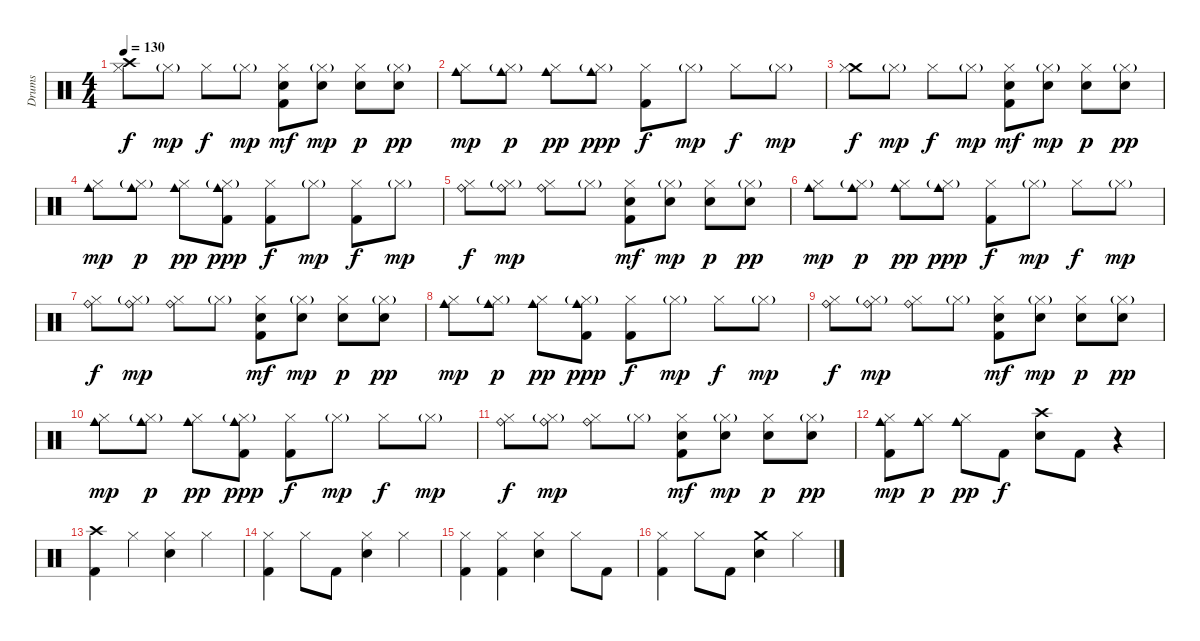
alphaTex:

\track ("Drums" "Drums") {instrument percussion}
\staff {score}
\articulation defaults
\ts (4 4)
\tempo 130
\clef neutral
\ks c
("Crash high (hit)" "Hi-Hat (closed)").8{dy f} "Hi-Hat (closed)"{g}.8{dy mp} "Hi-Hat (closed)".8{dy f} "Hi-Hat (closed)"{g}.8{dy mp} ("Hi-Hat (closed)" "Hand Clap (hit)" "Kick (hit) 2").8{dy mf} ("Hi-Hat (closed)"{g} "Hand Clap (hit)").8{dy mp} ("Hi-Hat (closed)" "Hand Clap (hit)").8{dy p} ("Hi-Hat (closed)"{g} "Hand Clap (hit)").8{dy pp} |
("Hi-Hat (closed)" "Cowbell medium (hit)").8{dy mp} ("Hi-Hat (closed)"{g} "Cowbell medium (hit)").8{dy p} ("Hi-Hat (closed)" "Cowbell medium (hit)").8{dy pp} ("Hi-Hat (closed)"{g} "Cowbell medium (hit)").8{dy ppp} ("Hi-Hat (closed)" "Kick (hit) 2").8{dy f} "Hi-Hat (closed)"{g}.8{dy mp} "Hi-Hat (closed)".8{dy f} "Hi-Hat (closed)"{g}.8{dy mp} |
("Crash medium (hit)" "Hi-Hat (closed)").8{dy f} "Hi-Hat (closed)"{g}.8{dy mp} "Hi-Hat (closed)".8{dy f} "Hi-Hat (closed)"{g}.8{dy mp} ("Hi-Hat (closed)" "Hand Clap (hit)" "Kick (hit) 2").8{dy mf} ("Hi-Hat (closed)"{g} "Hand Clap (hit)").8{dy mp} ("Hi-Hat (closed)" "Hand Clap (hit)").8{dy p} ("Hi-Hat (closed)"{g} "Hand Clap (hit)").8{dy pp} |
("Hi-Hat (closed)" "Cowbell medium (hit)").8{dy mp} ("Hi-Hat (closed)"{g} "Cowbell medium (hit)").8{dy p} ("Hi-Hat (closed)" "Cowbell medium (hit)").8{dy pp} ("Hi-Hat (closed)"{g} "Cowbell medium (hit)" "Kick (hit) 2").8{dy ppp} ("Hi-Hat (closed)" "Kick (hit) 2").8{dy f} "Hi-Hat (closed)"{g}.8{dy mp} ("Hi-Hat (closed)" "Kick (hit) 2").8{dy f} "Hi-Hat (closed)"{g}.8{dy mp} |
("Ride (bell)" "Hi-Hat (closed)").8{dy f} ("Ride (bell)" "Hi-Hat (closed)"{g}).8{dy mp} ("Ride (bell)" "Hi-Hat (closed)").8 "Hi-Hat (closed)"{g}.8 ("Hi-Hat (closed)" "Hand Clap (hit)" "Kick (hit) 2").8{dy mf} ("Hi-Hat (closed)"{g} "Hand Clap (hit)").8{dy mp} ("Hi-Hat (closed)" "Hand Clap (hit)").8{dy p} ("Hi-Hat (closed)"{g} "Hand Clap (hit)").8{dy pp} |
("Hi-Hat (closed)" "Cowbell medium (hit)").8{dy mp} ("Hi-Hat (closed)"{g} "Cowbell medium (hit)").8{dy p} ("Hi-Hat (closed)" "Cowbell medium (hit)").8{dy pp} ("Hi-Hat (closed)"{g} "Cowbell medium (hit)").8{dy ppp} ("Hi-Hat (closed)" "Kick (hit) 2").8{dy f} "Hi-Hat (closed)"{g}.8{dy mp} "Hi-Hat (closed)".8{dy f} "Hi-Hat (closed)"{g}.8{dy mp} |
("Ride (bell)" "Hi-Hat (closed)").8{dy f} ("Ride (bell)" "Hi-Hat (closed)"{g}).8{dy mp} ("Ride (bell)" "Hi-Hat (closed)").8 "Hi-Hat (closed)"{g}.8 ("Hi-Hat (closed)" "Hand Clap (hit)" "Kick (hit) 2").8{dy mf} ("Hi-Hat (closed)"{g} "Hand Clap (hit)").8{dy mp} ("Hi-Hat (closed)" "Hand Clap (hit)").8{dy p} ("Hi-Hat (closed)"{g} "Hand Clap (hit)").8{dy pp} |
("Hi-Hat (closed)" "Cowbell medium (hit)").8{dy mp} ("Hi-Hat (closed)"{g} "Cowbell medium (hit)").8{dy p} ("Hi-Hat (closed)" "Cowbell medium (hit)").8{dy pp} ("Hi-Hat (closed)"{g} "Cowbell medium (hit)" "Kick (hit) 2").8{dy ppp} ("Hi-Hat (closed)" "Kick (hit) 2").8{dy f} "Hi-Hat (closed)"{g}.8{dy mp} "Hi-Hat (closed)".8{dy f} "Hi-Hat (closed)"{g}.8{dy mp} |
("Ride (bell)" "Hi-Hat (closed)").8{dy f} ("Ride (bell)" "Hi-Hat (closed)"{g}).8{dy mp} ("Ride (bell)" "Hi-Hat (closed)").8 "Hi-Hat (closed)"{g}.8 ("Hi-Hat (closed)" "Hand Clap (hit)" "Kick (hit) 2").8{dy mf} ("Hi-Hat (closed)"{g} "Hand Clap (hit)").8{dy mp} ("Hi-Hat (closed)" "Hand Clap (hit)").8{dy p} ("Hi-Hat (closed)"{g} "Hand Clap (hit)").8{dy pp} |
("Hi-Hat (closed)" "Cowbell medium (hit)").8{dy mp} ("Hi-Hat (closed)"{g} "Cowbell medium (hit)").8{dy p} ("Hi-Hat (closed)" "Cowbell medium (hit)").8{dy pp} ("Hi-Hat (closed)"{g} "Cowbell medium (hit)" "Kick (hit) 2").8{dy ppp} ("Hi-Hat (closed)" "Kick (hit) 2").8{dy f} "Hi-Hat (closed)"{g}.8{dy mp} "Hi-Hat (closed)".8{dy f} "Hi-Hat (closed)"{g}.8{dy mp} |
("Ride (bell)" "Hi-Hat (closed)").8{dy f} ("Ride (bell)" "Hi-Hat (closed)"{g}).8{dy mp} ("Ride (bell)" "Hi-Hat (closed)").8 "Hi-Hat (closed)"{g}.8 ("Hi-Hat (closed)" "Hand Clap (hit)" "Kick (hit) 2").8{dy mf} ("Hi-Hat (closed)"{g} "Hand Clap (hit)").8{dy mp} ("Hi-Hat (closed)" "Hand Clap (hit)").8{dy p} ("Hi-Hat (closed)"{g} "Hand Clap (hit)").8{dy pp} |
("Hi-Hat (closed)" "Cowbell medium (hit)" "Kick (hit) 2").8{dy mp} ("Hi-Hat (closed)" "Cowbell medium (hit)").8{dy p} ("Hi-Hat (closed)" "Cowbell medium (hit)").8{dy pp} "Kick (hit) 2".8{dy f} ("Crash high (hit)" "Electric Snare (hit)").8 "Kick (hit) 2".8 r.4 |
("Crash high (hit)" "Kick (hit) 2").4 "Hi-Hat (closed)".4 ("Hi-Hat (closed)" "Snare (hit) 2").4 "Hi-Hat (closed)".4 |
("Hi-Hat (closed)" "Kick (hit) 2").4 "Hi-Hat (closed)".8 "Kick (hit) 2".8 ("Hi-Hat (closed)" "Snare (hit) 2").4 "Hi-Hat (closed)".4 |
("Hi-Hat (closed)" "Kick (hit) 2").4 ("Hi-Hat (closed)" "Kick (hit) 2").4 ("Hi-Hat (closed)" "Snare (hit) 2").4 "Hi-Hat (closed)".8 "Kick (hit) 2".8 |
("Hi-Hat (closed)" "Kick (hit) 2").4 "Hi-Hat (closed)".8 "Kick (hit) 2".8 ("Crash medium (hit)" "Snare (hit) 2").4 "Hi-Hat (closed)".4
